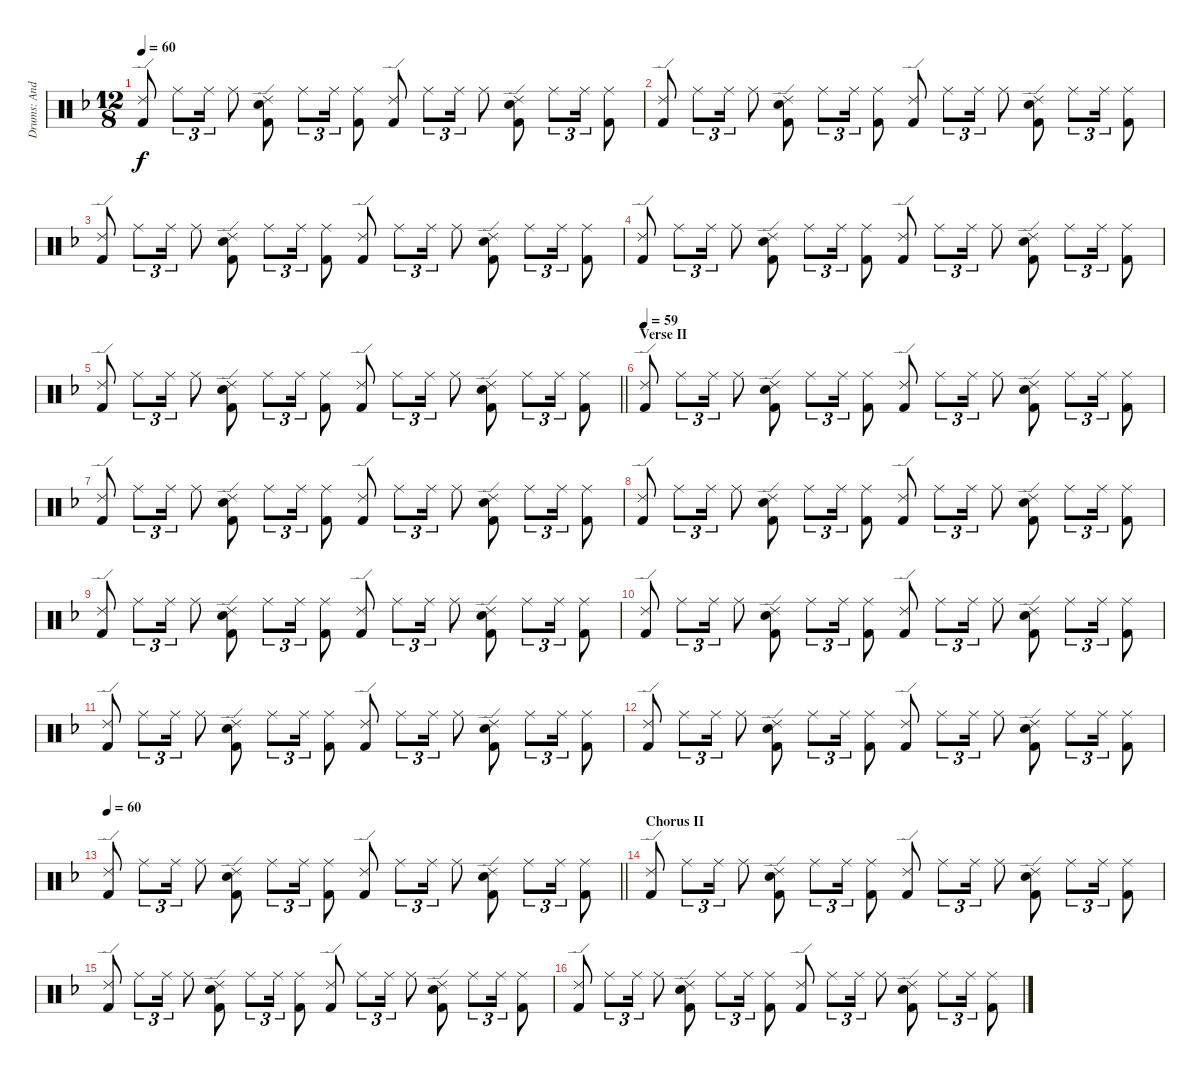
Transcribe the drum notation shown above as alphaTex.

\track ("Drums: Andy" "Drums: And") {instrument percussion}
\staff {score}
\articulation defaults
\ts (12 8)
\tempo 60
\clef neutral
\ks f
("Ride (edge) 2" "Kick (hit) 2").8{dy f} "Ride (middle)".8{tu (3 2)} "Ride (middle)".16{tu (3 2)} "Ride (middle)".8 ("Ride (edge) 2" "Electric Snare (hit)" "Kick (hit) 2").8 "Ride (middle)".8{tu (3 2)} "Ride (middle)".16{tu (3 2)} ("Ride (middle)" "Kick (hit) 2").8 ("Ride (edge) 2" "Kick (hit) 2").8 "Ride (middle)".8{tu (3 2)} "Ride (middle)".16{tu (3 2)} "Ride (middle)".8 ("Ride (edge) 2" "Electric Snare (hit)" "Kick (hit) 2").8 "Ride (middle)".8{tu (3 2)} "Ride (middle)".16{tu (3 2)} ("Ride (middle)" "Kick (hit) 2").8 |
("Ride (edge) 2" "Kick (hit) 2").8 "Ride (middle)".8{tu (3 2)} "Ride (middle)".16{tu (3 2)} "Ride (middle)".8 ("Ride (edge) 2" "Electric Snare (hit)" "Kick (hit) 2").8 "Ride (middle)".8{tu (3 2)} "Ride (middle)".16{tu (3 2)} ("Ride (middle)" "Kick (hit) 2").8 ("Ride (edge) 2" "Kick (hit) 2").8 "Ride (middle)".8{tu (3 2)} "Ride (middle)".16{tu (3 2)} "Ride (middle)".8 ("Ride (edge) 2" "Electric Snare (hit)" "Kick (hit) 2").8 "Ride (middle)".8{tu (3 2)} "Ride (middle)".16{tu (3 2)} ("Ride (middle)" "Kick (hit) 2").8 |
("Ride (edge) 2" "Kick (hit) 2").8 "Ride (middle)".8{tu (3 2)} "Ride (middle)".16{tu (3 2)} "Ride (middle)".8 ("Ride (edge) 2" "Electric Snare (hit)" "Kick (hit) 2").8 "Ride (middle)".8{tu (3 2)} "Ride (middle)".16{tu (3 2)} ("Ride (middle)" "Kick (hit) 2").8 ("Ride (edge) 2" "Kick (hit) 2").8 "Ride (middle)".8{tu (3 2)} "Ride (middle)".16{tu (3 2)} "Ride (middle)".8 ("Ride (edge) 2" "Electric Snare (hit)" "Kick (hit) 2").8 "Ride (middle)".8{tu (3 2)} "Ride (middle)".16{tu (3 2)} ("Ride (middle)" "Kick (hit) 2").8 |
("Ride (edge) 2" "Kick (hit) 2").8 "Ride (middle)".8{tu (3 2)} "Ride (middle)".16{tu (3 2)} "Ride (middle)".8 ("Ride (edge) 2" "Electric Snare (hit)" "Kick (hit) 2").8 "Ride (middle)".8{tu (3 2)} "Ride (middle)".16{tu (3 2)} ("Ride (middle)" "Kick (hit) 2").8 ("Ride (edge) 2" "Kick (hit) 2").8 "Ride (middle)".8{tu (3 2)} "Ride (middle)".16{tu (3 2)} "Ride (middle)".8 ("Ride (edge) 2" "Electric Snare (hit)" "Kick (hit) 2").8 "Ride (middle)".8{tu (3 2)} "Ride (middle)".16{tu (3 2)} ("Ride (middle)" "Kick (hit) 2").8 |
\barLineRight lightlight
("Ride (edge) 2" "Kick (hit) 2").8 "Ride (middle)".8{tu (3 2)} "Ride (middle)".16{tu (3 2)} "Ride (middle)".8 ("Ride (edge) 2" "Electric Snare (hit)" "Kick (hit) 2").8 "Ride (middle)".8{tu (3 2)} "Ride (middle)".16{tu (3 2)} ("Ride (middle)" "Kick (hit) 2").8 ("Ride (edge) 2" "Kick (hit) 2").8 "Ride (middle)".8{tu (3 2)} "Ride (middle)".16{tu (3 2)} "Ride (middle)".8 ("Ride (edge) 2" "Electric Snare (hit)" "Kick (hit) 2").8 "Ride (middle)".8{tu (3 2)} "Ride (middle)".16{tu (3 2)} ("Ride (middle)" "Kick (hit) 2").8 |
\section ("" "Verse II")
\tempo 59
("Ride (edge) 2" "Kick (hit) 2").8 "Ride (middle)".8{tu (3 2)} "Ride (middle)".16{tu (3 2)} "Ride (middle)".8 ("Ride (edge) 2" "Electric Snare (hit)" "Kick (hit) 2").8 "Ride (middle)".8{tu (3 2)} "Ride (middle)".16{tu (3 2)} ("Ride (middle)" "Kick (hit) 2").8 ("Ride (edge) 2" "Kick (hit) 2").8 "Ride (middle)".8{tu (3 2)} "Ride (middle)".16{tu (3 2)} "Ride (middle)".8 ("Ride (edge) 2" "Electric Snare (hit)" "Kick (hit) 2").8 "Ride (middle)".8{tu (3 2)} "Ride (middle)".16{tu (3 2)} ("Ride (middle)" "Kick (hit) 2").8 |
("Ride (edge) 2" "Kick (hit) 2").8 "Ride (middle)".8{tu (3 2)} "Ride (middle)".16{tu (3 2)} "Ride (middle)".8 ("Ride (edge) 2" "Electric Snare (hit)" "Kick (hit) 2").8 "Ride (middle)".8{tu (3 2)} "Ride (middle)".16{tu (3 2)} ("Ride (middle)" "Kick (hit) 2").8 ("Ride (edge) 2" "Kick (hit) 2").8 "Ride (middle)".8{tu (3 2)} "Ride (middle)".16{tu (3 2)} "Ride (middle)".8 ("Ride (edge) 2" "Electric Snare (hit)" "Kick (hit) 2").8 "Ride (middle)".8{tu (3 2)} "Ride (middle)".16{tu (3 2)} ("Ride (middle)" "Kick (hit) 2").8 |
("Ride (edge) 2" "Kick (hit) 2").8 "Ride (middle)".8{tu (3 2)} "Ride (middle)".16{tu (3 2)} "Ride (middle)".8 ("Ride (edge) 2" "Electric Snare (hit)" "Kick (hit) 2").8 "Ride (middle)".8{tu (3 2)} "Ride (middle)".16{tu (3 2)} ("Ride (middle)" "Kick (hit) 2").8 ("Ride (edge) 2" "Kick (hit) 2").8 "Ride (middle)".8{tu (3 2)} "Ride (middle)".16{tu (3 2)} "Ride (middle)".8 ("Ride (edge) 2" "Electric Snare (hit)" "Kick (hit) 2").8 "Ride (middle)".8{tu (3 2)} "Ride (middle)".16{tu (3 2)} ("Ride (middle)" "Kick (hit) 2").8 |
("Ride (edge) 2" "Kick (hit) 2").8 "Ride (middle)".8{tu (3 2)} "Ride (middle)".16{tu (3 2)} "Ride (middle)".8 ("Ride (edge) 2" "Electric Snare (hit)" "Kick (hit) 2").8 "Ride (middle)".8{tu (3 2)} "Ride (middle)".16{tu (3 2)} ("Ride (middle)" "Kick (hit) 2").8 ("Ride (edge) 2" "Kick (hit) 2").8 "Ride (middle)".8{tu (3 2)} "Ride (middle)".16{tu (3 2)} "Ride (middle)".8 ("Ride (edge) 2" "Electric Snare (hit)" "Kick (hit) 2").8 "Ride (middle)".8{tu (3 2)} "Ride (middle)".16{tu (3 2)} ("Ride (middle)" "Kick (hit) 2").8 |
("Ride (edge) 2" "Kick (hit) 2").8 "Ride (middle)".8{tu (3 2)} "Ride (middle)".16{tu (3 2)} "Ride (middle)".8 ("Ride (edge) 2" "Electric Snare (hit)" "Kick (hit) 2").8 "Ride (middle)".8{tu (3 2)} "Ride (middle)".16{tu (3 2)} ("Ride (middle)" "Kick (hit) 2").8 ("Ride (edge) 2" "Kick (hit) 2").8 "Ride (middle)".8{tu (3 2)} "Ride (middle)".16{tu (3 2)} "Ride (middle)".8 ("Ride (edge) 2" "Electric Snare (hit)" "Kick (hit) 2").8 "Ride (middle)".8{tu (3 2)} "Ride (middle)".16{tu (3 2)} ("Ride (middle)" "Kick (hit) 2").8 |
("Ride (edge) 2" "Kick (hit) 2").8 "Ride (middle)".8{tu (3 2)} "Ride (middle)".16{tu (3 2)} "Ride (middle)".8 ("Ride (edge) 2" "Electric Snare (hit)" "Kick (hit) 2").8 "Ride (middle)".8{tu (3 2)} "Ride (middle)".16{tu (3 2)} ("Ride (middle)" "Kick (hit) 2").8 ("Ride (edge) 2" "Kick (hit) 2").8 "Ride (middle)".8{tu (3 2)} "Ride (middle)".16{tu (3 2)} "Ride (middle)".8 ("Ride (edge) 2" "Electric Snare (hit)" "Kick (hit) 2").8 "Ride (middle)".8{tu (3 2)} "Ride (middle)".16{tu (3 2)} ("Ride (middle)" "Kick (hit) 2").8 |
("Ride (edge) 2" "Kick (hit) 2").8 "Ride (middle)".8{tu (3 2)} "Ride (middle)".16{tu (3 2)} "Ride (middle)".8 ("Ride (edge) 2" "Electric Snare (hit)" "Kick (hit) 2").8 "Ride (middle)".8{tu (3 2)} "Ride (middle)".16{tu (3 2)} ("Ride (middle)" "Kick (hit) 2").8 ("Ride (edge) 2" "Kick (hit) 2").8 "Ride (middle)".8{tu (3 2)} "Ride (middle)".16{tu (3 2)} "Ride (middle)".8 ("Ride (edge) 2" "Electric Snare (hit)" "Kick (hit) 2").8 "Ride (middle)".8{tu (3 2)} "Ride (middle)".16{tu (3 2)} ("Ride (middle)" "Kick (hit) 2").8 |
\tempo 60
\barLineRight lightlight
("Ride (edge) 2" "Kick (hit) 2").8 "Ride (middle)".8{tu (3 2)} "Ride (middle)".16{tu (3 2)} "Ride (middle)".8 ("Ride (edge) 2" "Electric Snare (hit)" "Kick (hit) 2").8 "Ride (middle)".8{tu (3 2)} "Ride (middle)".16{tu (3 2)} ("Ride (middle)" "Kick (hit) 2").8 ("Ride (edge) 2" "Kick (hit) 2").8 "Ride (middle)".8{tu (3 2)} "Ride (middle)".16{tu (3 2)} "Ride (middle)".8 ("Ride (edge) 2" "Electric Snare (hit)" "Kick (hit) 2").8 "Ride (middle)".8{tu (3 2)} "Ride (middle)".16{tu (3 2)} ("Ride (middle)" "Kick (hit) 2").8 |
\section ("" "Chorus II")
("Ride (edge) 2" "Kick (hit) 2").8 "Ride (middle)".8{tu (3 2)} "Ride (middle)".16{tu (3 2)} "Ride (middle)".8 ("Ride (edge) 2" "Electric Snare (hit)" "Kick (hit) 2").8 "Ride (middle)".8{tu (3 2)} "Ride (middle)".16{tu (3 2)} ("Ride (middle)" "Kick (hit) 2").8 ("Ride (edge) 2" "Kick (hit) 2").8 "Ride (middle)".8{tu (3 2)} "Ride (middle)".16{tu (3 2)} "Ride (middle)".8 ("Ride (edge) 2" "Electric Snare (hit)" "Kick (hit) 2").8 "Ride (middle)".8{tu (3 2)} "Ride (middle)".16{tu (3 2)} ("Ride (middle)" "Kick (hit) 2").8 |
("Ride (edge) 2" "Kick (hit) 2").8 "Ride (middle)".8{tu (3 2)} "Ride (middle)".16{tu (3 2)} "Ride (middle)".8 ("Ride (edge) 2" "Electric Snare (hit)" "Kick (hit) 2").8 "Ride (middle)".8{tu (3 2)} "Ride (middle)".16{tu (3 2)} ("Ride (middle)" "Kick (hit) 2").8 ("Ride (edge) 2" "Kick (hit) 2").8 "Ride (middle)".8{tu (3 2)} "Ride (middle)".16{tu (3 2)} "Ride (middle)".8 ("Ride (edge) 2" "Electric Snare (hit)" "Kick (hit) 2").8 "Ride (middle)".8{tu (3 2)} "Ride (middle)".16{tu (3 2)} ("Ride (middle)" "Kick (hit) 2").8 |
("Ride (edge) 2" "Kick (hit) 2").8 "Ride (middle)".8{tu (3 2)} "Ride (middle)".16{tu (3 2)} "Ride (middle)".8 ("Ride (edge) 2" "Electric Snare (hit)" "Kick (hit) 2").8 "Ride (middle)".8{tu (3 2)} "Ride (middle)".16{tu (3 2)} ("Ride (middle)" "Kick (hit) 2").8 ("Ride (edge) 2" "Kick (hit) 2").8 "Ride (middle)".8{tu (3 2)} "Ride (middle)".16{tu (3 2)} "Ride (middle)".8 ("Ride (edge) 2" "Electric Snare (hit)" "Kick (hit) 2").8 "Ride (middle)".8{tu (3 2)} "Ride (middle)".16{tu (3 2)} ("Ride (middle)" "Kick (hit) 2").8
